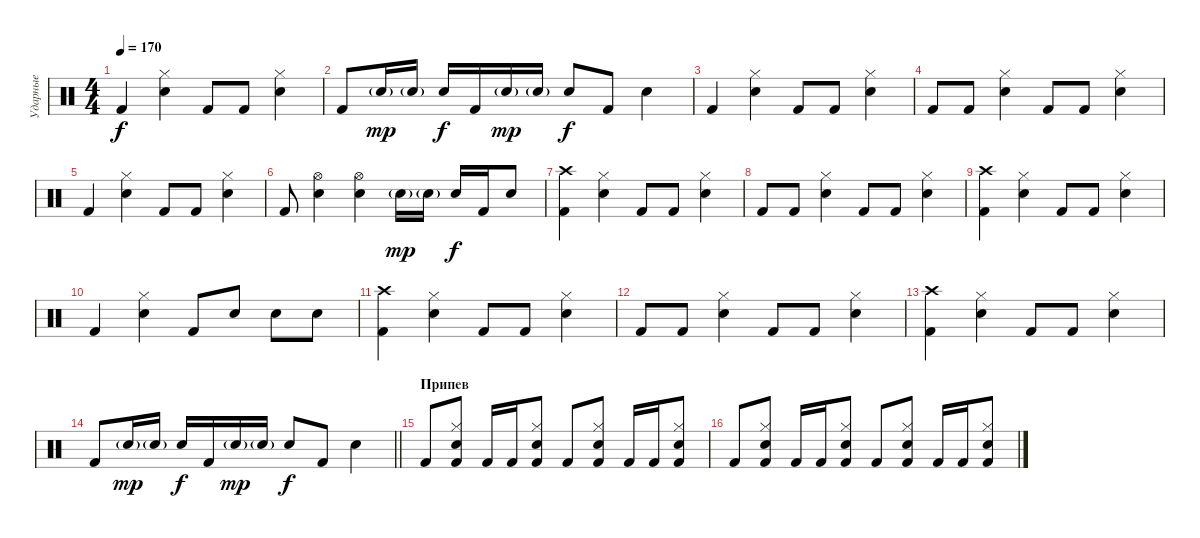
\track ("Ударные" "Ударные") {instrument percussion}
\staff {score}
\articulation defaults
\ts (4 4)
\tempo 170
\clef neutral
\ks c "Kick (hit) 2".4{dy f}
("Hi-Hat (closed)" "Snare (hit) 2").4 "Kick (hit) 2".8 "Kick (hit) 2".8 ("Hi-Hat (closed)" "Snare (hit) 2").4 |
"Kick (hit) 2".8 "Snare (hit) 2"{g}.16{dy mp} "Snare (hit) 2"{g}.16 "Snare (hit) 2".16{dy f} "Kick (hit) 2".16 "Snare (hit) 2"{g}.16{dy mp} "Snare (hit) 2"{g}.16 "Snare (hit) 2".8{dy f} "Kick (hit) 2".8 "Snare (hit) 2".4 |
"Kick (hit) 2".4 ("Hi-Hat (closed)" "Snare (hit) 2").4 "Kick (hit) 2".8 "Kick (hit) 2".8 ("Hi-Hat (closed)" "Snare (hit) 2").4 |
"Kick (hit) 2".8 "Kick (hit) 2".8 ("Hi-Hat (closed)" "Snare (hit) 2").4 "Kick (hit) 2".8 "Kick (hit) 2".8 ("Hi-Hat (closed)" "Snare (hit) 2").4 |
"Kick (hit) 2".4 ("Hi-Hat (closed)" "Snare (hit) 2").4 "Kick (hit) 2".8 "Kick (hit) 2".8 ("Hi-Hat (closed)" "Snare (hit) 2").4 |
"Kick (hit) 2".8 ("Hi-Hat (open)" "Snare (hit) 2").4 ("Hi-Hat (open)" "Snare (hit) 2").4 "Snare (hit) 2"{g}.16{dy mp} "Snare (hit) 2"{g}.16 "Snare (hit) 2".16{dy f} "Kick (hit) 2".16 "Snare (hit) 2".8 |
("Crash high (hit)" "Kick (hit) 2").4 ("Hi-Hat (closed)" "Snare (hit) 2").4 "Kick (hit) 2".8 "Kick (hit) 2".8 ("Hi-Hat (closed)" "Snare (hit) 2").4 |
"Kick (hit) 2".8 "Kick (hit) 2".8 ("Hi-Hat (closed)" "Snare (hit) 2").4 "Kick (hit) 2".8 "Kick (hit) 2".8 ("Hi-Hat (closed)" "Snare (hit) 2").4 |
("Crash high (hit)" "Kick (hit) 2").4 ("Hi-Hat (closed)" "Snare (hit) 2").4 "Kick (hit) 2".8 "Kick (hit) 2".8 ("Hi-Hat (closed)" "Snare (hit) 2").4 |
"Kick (hit) 2".4 ("Hi-Hat (closed)" "Snare (hit) 2").4 "Kick (hit) 2".8 "Snare (hit) 2".8 "Snare (hit) 2".8 "Snare (hit) 2".8 |
("Crash high (hit)" "Kick (hit) 2").4 ("Hi-Hat (closed)" "Snare (hit) 2").4 "Kick (hit) 2".8 "Kick (hit) 2".8 ("Hi-Hat (closed)" "Snare (hit) 2").4 |
"Kick (hit) 2".8 "Kick (hit) 2".8 ("Hi-Hat (closed)" "Snare (hit) 2").4 "Kick (hit) 2".8 "Kick (hit) 2".8 ("Hi-Hat (closed)" "Snare (hit) 2").4 |
("Crash high (hit)" "Kick (hit) 2").4 ("Hi-Hat (closed)" "Snare (hit) 2").4 "Kick (hit) 2".8 "Kick (hit) 2".8 ("Hi-Hat (closed)" "Snare (hit) 2").4 |
\barLineRight lightlight "Kick (hit) 2".8 "Snare (hit) 2"{g}.16{dy mp} "Snare (hit) 2"{g}.16 "Snare (hit) 2".16{dy f} "Kick (hit) 2".16 "Snare (hit) 2"{g}.16{dy mp} "Snare (hit) 2"{g}.16 "Snare (hit) 2".8{dy f} "Kick (hit) 2".8 "Snare (hit) 2".4
|
\section ("" "Припев")
"Kick (hit) 2".8 ("Hi-Hat (closed)" "Snare (hit) 2" "Kick (hit) 2").8 "Kick (hit) 2".16 "Kick (hit) 2".16 ("Hi-Hat (closed)" "Snare (hit) 2" "Kick (hit) 2").8 "Kick (hit) 2".8 ("Hi-Hat (closed)" "Snare (hit) 2" "Kick (hit) 2").8 "Kick (hit) 2".16 "Kick (hit) 2".16 ("Hi-Hat (closed)" "Snare (hit) 2" "Kick (hit) 2").8 |
"Kick (hit) 2".8 ("Hi-Hat (closed)" "Snare (hit) 2" "Kick (hit) 2").8 "Kick (hit) 2".16 "Kick (hit) 2".16 ("Hi-Hat (closed)" "Snare (hit) 2" "Kick (hit) 2").8 "Kick (hit) 2".8 ("Hi-Hat (closed)" "Snare (hit) 2" "Kick (hit) 2").8 "Kick (hit) 2".16 "Kick (hit) 2".16 ("Hi-Hat (closed)" "Snare (hit) 2" "Kick (hit) 2").8
